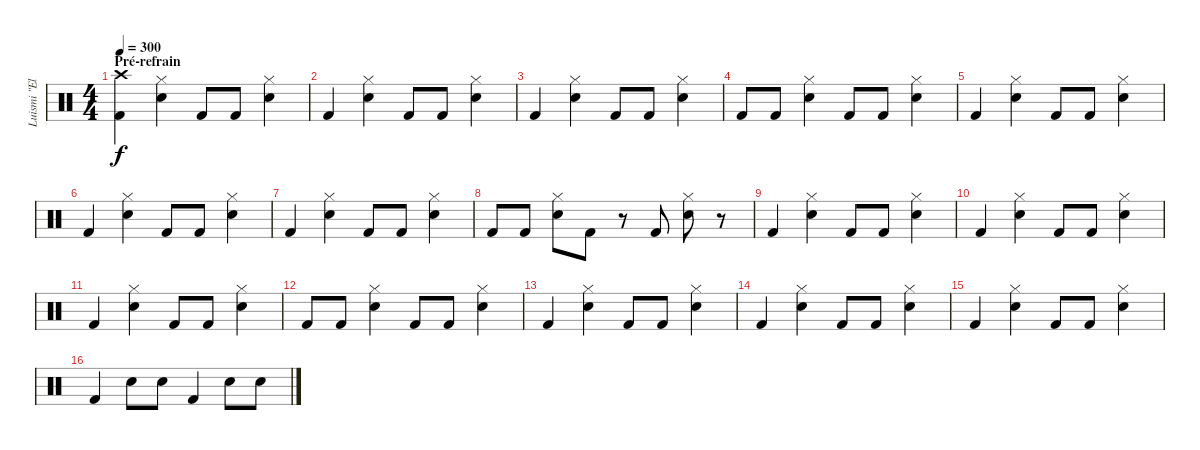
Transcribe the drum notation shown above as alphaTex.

\track ("Luismi \"El Papi\"" "Luismi \"El") {instrument percussion}
\staff {score}
\articulation defaults
\ts (4 4)
\section ("" "Pré-refrain")
\tempo 300
\clef neutral
\ks c
("Crash high (hit)" "Kick (hit) 2").4{dy f} ("Hi-Hat (closed)" "Snare (hit) 2").4 "Kick (hit) 2".8 "Kick (hit) 2".8 ("Hi-Hat (closed)" "Snare (hit) 2").4 |
"Kick (hit) 2".4 ("Hi-Hat (closed)" "Snare (hit) 2").4 "Kick (hit) 2".8 "Kick (hit) 2".8 ("Hi-Hat (closed)" "Snare (hit) 2").4 |
"Kick (hit) 2".4 ("Hi-Hat (closed)" "Snare (hit) 2").4 "Kick (hit) 2".8 "Kick (hit) 2".8 ("Hi-Hat (closed)" "Snare (hit) 2").4 |
"Kick (hit) 2".8 "Kick (hit) 2".8 ("Hi-Hat (closed)" "Snare (hit) 2").4 "Kick (hit) 2".8 "Kick (hit) 2".8 ("Hi-Hat (closed)" "Snare (hit) 2").4 |
"Kick (hit) 2".4 ("Hi-Hat (closed)" "Snare (hit) 2").4 "Kick (hit) 2".8 "Kick (hit) 2".8 ("Hi-Hat (closed)" "Snare (hit) 2").4 |
"Kick (hit) 2".4 ("Hi-Hat (closed)" "Snare (hit) 2").4 "Kick (hit) 2".8 "Kick (hit) 2".8 ("Hi-Hat (closed)" "Snare (hit) 2").4 |
"Kick (hit) 2".4 ("Hi-Hat (closed)" "Snare (hit) 2").4 "Kick (hit) 2".8 "Kick (hit) 2".8 ("Hi-Hat (closed)" "Snare (hit) 2").4 |
"Kick (hit) 2".8 "Kick (hit) 2".8 ("Hi-Hat (closed)" "Snare (hit) 2").8 "Kick (hit) 2".8 r.8 "Kick (hit) 2".8 ("Hi-Hat (closed)" "Snare (hit) 2").8 r.8 |
"Kick (hit) 2".4 ("Hi-Hat (closed)" "Snare (hit) 2").4 "Kick (hit) 2".8 "Kick (hit) 2".8 ("Hi-Hat (closed)" "Snare (hit) 2").4 |
"Kick (hit) 2".4 ("Hi-Hat (closed)" "Snare (hit) 2").4 "Kick (hit) 2".8 "Kick (hit) 2".8 ("Hi-Hat (closed)" "Snare (hit) 2").4 |
"Kick (hit) 2".4 ("Hi-Hat (closed)" "Snare (hit) 2").4 "Kick (hit) 2".8 "Kick (hit) 2".8 ("Hi-Hat (closed)" "Snare (hit) 2").4 |
"Kick (hit) 2".8 "Kick (hit) 2".8 ("Hi-Hat (closed)" "Snare (hit) 2").4 "Kick (hit) 2".8 "Kick (hit) 2".8 ("Hi-Hat (closed)" "Snare (hit) 2").4 |
"Kick (hit) 2".4 ("Hi-Hat (closed)" "Snare (hit) 2").4 "Kick (hit) 2".8 "Kick (hit) 2".8 ("Hi-Hat (closed)" "Snare (hit) 2").4 |
"Kick (hit) 2".4 ("Hi-Hat (closed)" "Snare (hit) 2").4 "Kick (hit) 2".8 "Kick (hit) 2".8 ("Hi-Hat (closed)" "Snare (hit) 2").4 |
"Kick (hit) 2".4 ("Hi-Hat (closed)" "Snare (hit) 2").4 "Kick (hit) 2".8 "Kick (hit) 2".8 ("Hi-Hat (closed)" "Snare (hit) 2").4 |
"Kick (hit) 2".4 "Snare (hit) 2".8 "Snare (hit) 2".8 "Kick (hit) 2".4 "Snare (hit) 2".8 "Snare (hit) 2".8
